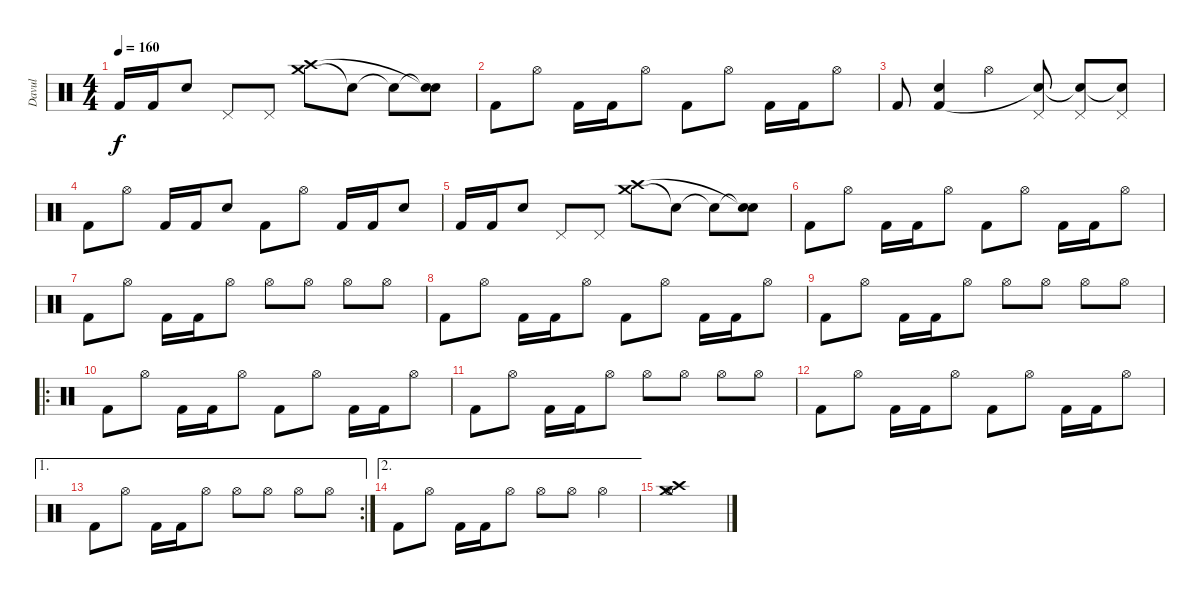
\track ("Davul" "Davul") {instrument percussion}
\staff {score}
\articulation defaults
\ts (4 4)
\tempo 160
\clef neutral
\ks c "Kick (hit) 2".16{dy f} "Kick (hit) 2".16 "Snare (hit) 2".8 "Pedal Hi-Hat (hit)".8 "Pedal Hi-Hat (hit)".8
("Crash medium (hit)" "Crash high (hit)").8 "Snare (hit)"{t}.8 "Snare (hit)"{t}.8 ("Snare (hit)"{t} "Snare (hit)"{t}).8 |
"Kick (hit) 2".8 "Hi-Hat (open)".8 "Kick (hit) 2".16 "Kick (hit) 2".16 "Hi-Hat (open)".8 "Kick (hit) 2".8 "Hi-Hat (open)".8 "Kick (hit) 2".16 "Kick (hit) 2".16 "Hi-Hat (open)".8 |
"Kick (hit) 2".8 ("Snare (hit) 2" "Kick (hit) 2").4 "Hi-Hat (open)".4 ("Pedal Hi-Hat (hit)" "Snare (hit)"{t}).8 ("Pedal Hi-Hat (hit)" "Snare (hit)"{t}).8 ("Pedal Hi-Hat (hit)" "Snare (hit)"{t}).8 |
"Kick (hit) 2".8 "Hi-Hat (open)".8 "Kick (hit) 2".16 "Kick (hit) 2".16 "Snare (hit) 2".8 "Kick (hit) 2".8 "Hi-Hat (open)".8 "Kick (hit) 2".16 "Kick (hit) 2".16 "Snare (hit) 2".8 |
"Kick (hit) 2".16 "Kick (hit) 2".16 "Snare (hit) 2".8 "Pedal Hi-Hat (hit)".8 "Pedal Hi-Hat (hit)".8 ("Crash medium (hit)" "Crash high (hit)").8 "Snare (hit)"{t}.8 "Snare (hit)"{t}.8 ("Snare (hit)"{t} "Snare (hit)"{t}).8 |
"Kick (hit) 2".8 "Hi-Hat (open)".8 "Kick (hit) 2".16 "Kick (hit) 2".16 "Hi-Hat (open)".8 "Kick (hit) 2".8 "Hi-Hat (open)".8 "Kick (hit) 2".16 "Kick (hit) 2".16 "Hi-Hat (open)".8 |
"Kick (hit) 2".8 "Hi-Hat (open)".8 "Kick (hit) 2".16 "Kick (hit) 2".16 "Hi-Hat (open)".8 "Hi-Hat (open)".8 "Hi-Hat (open)".8 "Hi-Hat (open)".8 "Hi-Hat (open)".8 |
"Kick (hit) 2".8 "Hi-Hat (open)".8 "Kick (hit) 2".16 "Kick (hit) 2".16 "Hi-Hat (open)".8 "Kick (hit) 2".8 "Hi-Hat (open)".8 "Kick (hit) 2".16 "Kick (hit) 2".16 "Hi-Hat (open)".8 |
"Kick (hit) 2".8 "Hi-Hat (open)".8 "Kick (hit) 2".16 "Kick (hit) 2".16 "Hi-Hat (open)".8 "Hi-Hat (open)".8 "Hi-Hat (open)".8 "Hi-Hat (open)".8 "Hi-Hat (open)".8 |
\ro "Kick (hit) 2".8 "Hi-Hat (open)".8 "Kick (hit) 2".16 "Kick (hit) 2".16 "Hi-Hat (open)".8 "Kick (hit) 2".8 "Hi-Hat (open)".8 "Kick (hit) 2".16 "Kick (hit) 2".16 "Hi-Hat (open)".8
|
"Kick (hit) 2".8 "Hi-Hat (open)".8 "Kick (hit) 2".16 "Kick (hit) 2".16 "Hi-Hat (open)".8 "Hi-Hat (open)".8 "Hi-Hat (open)".8 "Hi-Hat (open)".8 "Hi-Hat (open)".8 |
"Kick (hit) 2".8 "Hi-Hat (open)".8 "Kick (hit) 2".16 "Kick (hit) 2".16 "Hi-Hat (open)".8 "Kick (hit) 2".8 "Hi-Hat (open)".8 "Kick (hit) 2".16 "Kick (hit) 2".16 "Hi-Hat (open)".8 |
\ae 1
\rc 2 "Kick (hit) 2".8 "Hi-Hat (open)".8 "Kick (hit) 2".16 "Kick (hit) 2".16 "Hi-Hat (open)".8 "Hi-Hat (open)".8 "Hi-Hat (open)".8 "Hi-Hat (open)".8 "Hi-Hat (open)".8
|
\ae 2 "Kick (hit) 2".8 "Hi-Hat (open)".8 "Kick (hit) 2".16 "Kick (hit) 2".16 "Hi-Hat (open)".8 "Hi-Hat (open)".8 "Hi-Hat (open)".8 "Hi-Hat (open)".4
|
("Crash high (hit)" "Hi-Hat (open)" "Crash medium (hit)").1
